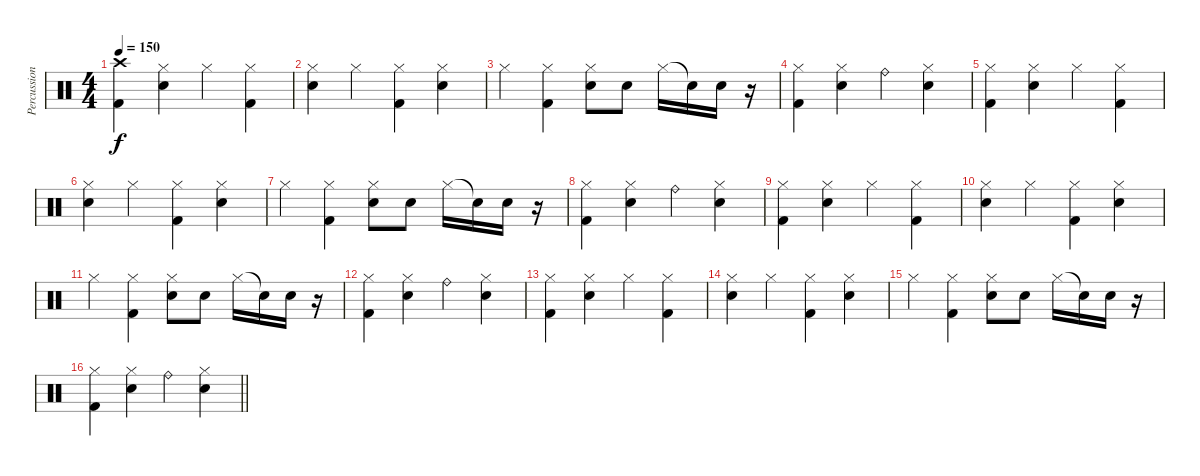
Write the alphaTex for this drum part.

\track ("Percussion" "Percussion") {instrument percussion}
\staff {score}
\articulation defaults
\ts (4 4)
\tempo 150
\clef neutral
\ks c
("Crash high (hit)" "Kick (hit) 2").4{dy f} ("Electric Snare (hit)" "Hi-Hat (closed)").4 "Hi-Hat (closed)".4 ("Kick (hit) 2" "Hi-Hat (closed)").4 |
("Electric Snare (hit)" "Hi-Hat (closed)").4 "Hi-Hat (closed)".4 ("Kick (hit) 2" "Hi-Hat (closed)").4 ("Electric Snare (hit)" "Hi-Hat (closed)").4 |
"Hi-Hat (closed)".4 ("Kick (hit) 2" "Hi-Hat (closed)").4 ("Electric Snare (hit)" "Hi-Hat (closed)").8 "Electric Snare (hit)".8 "Hi-Hat (closed)".16 "Snare (hit)"{t}.16 "Electric Snare (hit)".16 r.16 |
("Hi-Hat (closed)" "Kick (hit) 2").4 ("Electric Snare (hit)" "Hi-Hat (closed)").4 "Ride (bell)".4 ("Electric Snare (hit)" "Hi-Hat (closed)").4 |
("Hi-Hat (closed)" "Kick (hit) 2").4 ("Electric Snare (hit)" "Hi-Hat (closed)").4 "Hi-Hat (closed)".4 ("Kick (hit) 2" "Hi-Hat (closed)").4 |
("Electric Snare (hit)" "Hi-Hat (closed)").4 "Hi-Hat (closed)".4 ("Kick (hit) 2" "Hi-Hat (closed)").4 ("Electric Snare (hit)" "Hi-Hat (closed)").4 |
"Hi-Hat (closed)".4 ("Kick (hit) 2" "Hi-Hat (closed)").4 ("Electric Snare (hit)" "Hi-Hat (closed)").8 "Electric Snare (hit)".8 "Hi-Hat (closed)".16 "Snare (hit)"{t}.16 "Electric Snare (hit)".16 r.16 |
("Hi-Hat (closed)" "Kick (hit) 2").4 ("Electric Snare (hit)" "Hi-Hat (closed)").4 "Ride (bell)".4 ("Electric Snare (hit)" "Hi-Hat (closed)").4 |
("Hi-Hat (closed)" "Kick (hit) 2").4 ("Electric Snare (hit)" "Hi-Hat (closed)").4 "Hi-Hat (closed)".4 ("Kick (hit) 2" "Hi-Hat (closed)").4 |
("Electric Snare (hit)" "Hi-Hat (closed)").4 "Hi-Hat (closed)".4 ("Kick (hit) 2" "Hi-Hat (closed)").4 ("Electric Snare (hit)" "Hi-Hat (closed)").4 |
"Hi-Hat (closed)".4 ("Kick (hit) 2" "Hi-Hat (closed)").4 ("Electric Snare (hit)" "Hi-Hat (closed)").8 "Electric Snare (hit)".8 "Hi-Hat (closed)".16 "Snare (hit)"{t}.16 "Electric Snare (hit)".16 r.16 |
("Hi-Hat (closed)" "Kick (hit) 2").4 ("Electric Snare (hit)" "Hi-Hat (closed)").4 "Ride (bell)".4 ("Electric Snare (hit)" "Hi-Hat (closed)").4 |
("Hi-Hat (closed)" "Kick (hit) 2").4 ("Electric Snare (hit)" "Hi-Hat (closed)").4 "Hi-Hat (closed)".4 ("Kick (hit) 2" "Hi-Hat (closed)").4 |
("Electric Snare (hit)" "Hi-Hat (closed)").4 "Hi-Hat (closed)".4 ("Kick (hit) 2" "Hi-Hat (closed)").4 ("Electric Snare (hit)" "Hi-Hat (closed)").4 |
"Hi-Hat (closed)".4 ("Kick (hit) 2" "Hi-Hat (closed)").4 ("Electric Snare (hit)" "Hi-Hat (closed)").8 "Electric Snare (hit)".8 "Hi-Hat (closed)".16 "Snare (hit)"{t}.16 "Electric Snare (hit)".16 r.16 |
\barLineRight lightlight
("Hi-Hat (closed)" "Kick (hit) 2").4 ("Electric Snare (hit)" "Hi-Hat (closed)").4 "Ride (bell)".4 ("Electric Snare (hit)" "Hi-Hat (closed)").4
